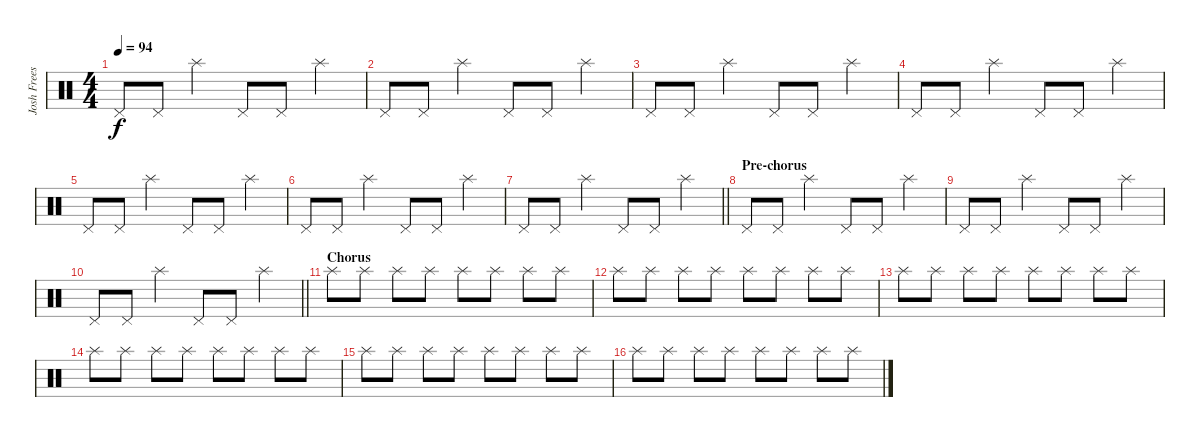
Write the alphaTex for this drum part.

\track ("Josh Freese (Studio Drummer)" "Josh Frees") {instrument percussion}
\staff {score}
\articulation defaults
\ts (4 4)
\tempo 94
\clef neutral
\ks c "Pedal Hi-Hat (hit)".8{dy f} "Pedal Hi-Hat (hit)".8 "Splash (hit)".4 "Pedal Hi-Hat (hit)".8 "Pedal Hi-Hat (hit)".8 "Splash (hit)".4
|
"Pedal Hi-Hat (hit)".8 "Pedal Hi-Hat (hit)".8 "Splash (hit)".4 "Pedal Hi-Hat (hit)".8 "Pedal Hi-Hat (hit)".8 "Splash (hit)".4 |
"Pedal Hi-Hat (hit)".8 "Pedal Hi-Hat (hit)".8 "Splash (hit)".4 "Pedal Hi-Hat (hit)".8 "Pedal Hi-Hat (hit)".8 "Splash (hit)".4 |
"Pedal Hi-Hat (hit)".8 "Pedal Hi-Hat (hit)".8 "Splash (hit)".4 "Pedal Hi-Hat (hit)".8 "Pedal Hi-Hat (hit)".8 "Splash (hit)".4 |
"Pedal Hi-Hat (hit)".8 "Pedal Hi-Hat (hit)".8 "Splash (hit)".4 "Pedal Hi-Hat (hit)".8 "Pedal Hi-Hat (hit)".8 "Splash (hit)".4 |
"Pedal Hi-Hat (hit)".8 "Pedal Hi-Hat (hit)".8 "Splash (hit)".4 "Pedal Hi-Hat (hit)".8 "Pedal Hi-Hat (hit)".8 "Splash (hit)".4 |
\barLineRight lightlight "Pedal Hi-Hat (hit)".8 "Pedal Hi-Hat (hit)".8 "Splash (hit)".4 "Pedal Hi-Hat (hit)".8 "Pedal Hi-Hat (hit)".8 "Splash (hit)".4
|
\section ("" "Pre-chorus")
"Pedal Hi-Hat (hit)".8 "Pedal Hi-Hat (hit)".8 "Splash (hit)".4 "Pedal Hi-Hat (hit)".8 "Pedal Hi-Hat (hit)".8 "Splash (hit)".4 |
"Pedal Hi-Hat (hit)".8 "Pedal Hi-Hat (hit)".8 "Splash (hit)".4 "Pedal Hi-Hat (hit)".8 "Pedal Hi-Hat (hit)".8 "Splash (hit)".4 |
\barLineRight lightlight "Pedal Hi-Hat (hit)".8 "Pedal Hi-Hat (hit)".8 "Splash (hit)".4 "Pedal Hi-Hat (hit)".8 "Pedal Hi-Hat (hit)".8 "Splash (hit)".4
|
\section ("" "Chorus")
"Splash (hit)".8 "Splash (hit)".8 "Splash (hit)".8 "Splash (hit)".8 "Splash (hit)".8 "Splash (hit)".8 "Splash (hit)".8 "Splash (hit)".8 |
"Splash (hit)".8 "Splash (hit)".8 "Splash (hit)".8 "Splash (hit)".8 "Splash (hit)".8 "Splash (hit)".8 "Splash (hit)".8 "Splash (hit)".8 |
"Splash (hit)".8 "Splash (hit)".8 "Splash (hit)".8 "Splash (hit)".8 "Splash (hit)".8 "Splash (hit)".8 "Splash (hit)".8 "Splash (hit)".8 |
"Splash (hit)".8 "Splash (hit)".8 "Splash (hit)".8 "Splash (hit)".8 "Splash (hit)".8 "Splash (hit)".8 "Splash (hit)".8 "Splash (hit)".8 |
"Splash (hit)".8 "Splash (hit)".8 "Splash (hit)".8 "Splash (hit)".8 "Splash (hit)".8 "Splash (hit)".8 "Splash (hit)".8 "Splash (hit)".8 |
"Splash (hit)".8 "Splash (hit)".8 "Splash (hit)".8 "Splash (hit)".8 "Splash (hit)".8 "Splash (hit)".8 "Splash (hit)".8 "Splash (hit)".8
